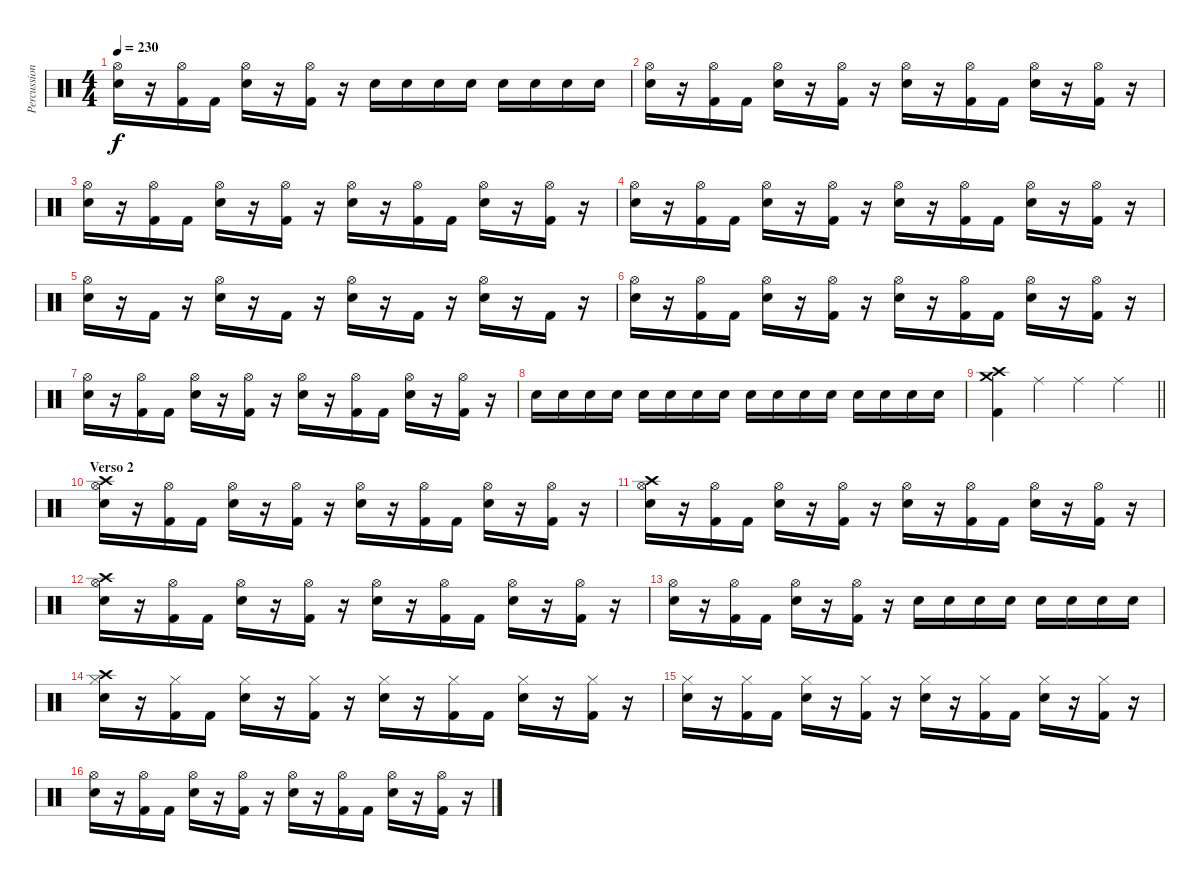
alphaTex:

\track ("Percussion" "Percussion") {instrument percussion}
\staff {score}
\articulation defaults
\ts (4 4)
\tempo 230
\clef neutral
\ks c
("Hi-Hat (open)" "Electric Snare (hit)").16{dy f} r.16 ("Hi-Hat (open)" "Kick (hit) 2").16 "Kick (hit) 2".16 ("Hi-Hat (open)" "Electric Snare (hit)").16 r.16 ("Hi-Hat (open)" "Kick (hit) 2").16 r.16 "Electric Snare (hit)".16 "Electric Snare (hit)".16 "Electric Snare (hit)".16 "Electric Snare (hit)".16 "Electric Snare (hit)".16 "Electric Snare (hit)".16 "Electric Snare (hit)".16 "Electric Snare (hit)".16 |
("Hi-Hat (open)" "Electric Snare (hit)").16 r.16 ("Hi-Hat (open)" "Kick (hit) 2").16 "Kick (hit) 2".16 ("Hi-Hat (open)" "Electric Snare (hit)").16 r.16 ("Hi-Hat (open)" "Kick (hit) 2").16 r.16 ("Hi-Hat (open)" "Electric Snare (hit)").16 r.16 ("Hi-Hat (open)" "Kick (hit) 2").16 "Kick (hit) 2".16 ("Hi-Hat (open)" "Electric Snare (hit)").16 r.16 ("Hi-Hat (open)" "Kick (hit) 2").16 r.16 |
("Hi-Hat (open)" "Electric Snare (hit)").16 r.16 ("Hi-Hat (open)" "Kick (hit) 2").16 "Kick (hit) 2".16 ("Hi-Hat (open)" "Electric Snare (hit)").16 r.16 ("Hi-Hat (open)" "Kick (hit) 2").16 r.16 ("Hi-Hat (open)" "Electric Snare (hit)").16 r.16 ("Hi-Hat (open)" "Kick (hit) 2").16 "Kick (hit) 2".16 ("Hi-Hat (open)" "Electric Snare (hit)").16 r.16 ("Hi-Hat (open)" "Kick (hit) 2").16 r.16 |
("Hi-Hat (open)" "Electric Snare (hit)").16 r.16 ("Hi-Hat (open)" "Kick (hit) 2").16 "Kick (hit) 2".16 ("Hi-Hat (open)" "Electric Snare (hit)").16 r.16 ("Hi-Hat (open)" "Kick (hit) 2").16 r.16 ("Hi-Hat (open)" "Electric Snare (hit)").16 r.16 ("Hi-Hat (open)" "Kick (hit) 2").16 "Kick (hit) 2".16 ("Hi-Hat (open)" "Electric Snare (hit)").16 r.16 ("Hi-Hat (open)" "Kick (hit) 2").16 r.16 |
("Hi-Hat (open)" "Electric Snare (hit)").16 r.16 "Kick (hit) 2".16 r.16 ("Hi-Hat (open)" "Electric Snare (hit)").16 r.16 "Kick (hit) 2".16 r.16 ("Hi-Hat (open)" "Electric Snare (hit)").16 r.16 "Kick (hit) 2".16 r.16 ("Hi-Hat (open)" "Electric Snare (hit)").16 r.16 "Kick (hit) 2".16 r.16 |
("Hi-Hat (open)" "Electric Snare (hit)").16 r.16 ("Hi-Hat (open)" "Kick (hit) 2").16 "Kick (hit) 2".16 ("Hi-Hat (open)" "Electric Snare (hit)").16 r.16 ("Hi-Hat (open)" "Kick (hit) 2").16 r.16 ("Hi-Hat (open)" "Electric Snare (hit)").16 r.16 ("Hi-Hat (open)" "Kick (hit) 2").16 "Kick (hit) 2".16 ("Hi-Hat (open)" "Electric Snare (hit)").16 r.16 ("Hi-Hat (open)" "Kick (hit) 2").16 r.16 |
("Hi-Hat (open)" "Electric Snare (hit)").16 r.16 ("Hi-Hat (open)" "Kick (hit) 2").16 "Kick (hit) 2".16 ("Hi-Hat (open)" "Electric Snare (hit)").16 r.16 ("Hi-Hat (open)" "Kick (hit) 2").16 r.16 ("Hi-Hat (open)" "Electric Snare (hit)").16 r.16 ("Hi-Hat (open)" "Kick (hit) 2").16 "Kick (hit) 2".16 ("Hi-Hat (open)" "Electric Snare (hit)").16 r.16 ("Hi-Hat (open)" "Kick (hit) 2").16 r.16 |
"Electric Snare (hit)".16 "Electric Snare (hit)".16 "Electric Snare (hit)".16 "Electric Snare (hit)".16 "Electric Snare (hit)".16 "Electric Snare (hit)".16 "Electric Snare (hit)".16 "Electric Snare (hit)".16 "Electric Snare (hit)".16 "Electric Snare (hit)".16 "Electric Snare (hit)".16 "Electric Snare (hit)".16 "Electric Snare (hit)".16 "Electric Snare (hit)".16 "Electric Snare (hit)".16 "Electric Snare (hit)".16 |
\barLineRight lightlight
("Crash high (hit)" "Crash medium (hit)" "Kick (hit) 2").4 "Ride (middle)".4 "Ride (middle)".4 "Ride (middle)".4 |
\section ("" "Verso 2")
("Crash high (hit)" "Hi-Hat (open)" "Electric Snare (hit)").16 r.16 ("Hi-Hat (open)" "Kick (hit) 2").16 "Kick (hit) 2".16 ("Hi-Hat (open)" "Electric Snare (hit)").16 r.16 ("Hi-Hat (open)" "Kick (hit) 2").16 r.16 ("Hi-Hat (open)" "Electric Snare (hit)").16 r.16 ("Hi-Hat (open)" "Kick (hit) 2").16 "Kick (hit) 2".16 ("Hi-Hat (open)" "Electric Snare (hit)").16 r.16 ("Hi-Hat (open)" "Kick (hit) 2").16 r.16 |
("Crash high (hit)" "Hi-Hat (open)" "Electric Snare (hit)").16 r.16 ("Hi-Hat (open)" "Kick (hit) 2").16 "Kick (hit) 2".16 ("Hi-Hat (open)" "Electric Snare (hit)").16 r.16 ("Hi-Hat (open)" "Kick (hit) 2").16 r.16 ("Hi-Hat (open)" "Electric Snare (hit)").16 r.16 ("Hi-Hat (open)" "Kick (hit) 2").16 "Kick (hit) 2".16 ("Hi-Hat (open)" "Electric Snare (hit)").16 r.16 ("Hi-Hat (open)" "Kick (hit) 2").16 r.16 |
("Crash high (hit)" "Hi-Hat (open)" "Electric Snare (hit)").16 r.16 ("Hi-Hat (open)" "Kick (hit) 2").16 "Kick (hit) 2".16 ("Hi-Hat (open)" "Electric Snare (hit)").16 r.16 ("Hi-Hat (open)" "Kick (hit) 2").16 r.16 ("Hi-Hat (open)" "Electric Snare (hit)").16 r.16 ("Hi-Hat (open)" "Kick (hit) 2").16 "Kick (hit) 2".16 ("Hi-Hat (open)" "Electric Snare (hit)").16 r.16 ("Hi-Hat (open)" "Kick (hit) 2").16 r.16 |
("Hi-Hat (open)" "Electric Snare (hit)").16 r.16 ("Hi-Hat (open)" "Kick (hit) 2").16 "Kick (hit) 2".16 ("Hi-Hat (open)" "Electric Snare (hit)").16 r.16 ("Hi-Hat (open)" "Kick (hit) 2").16 r.16 "Electric Snare (hit)".16 "Electric Snare (hit)".16 "Electric Snare (hit)".16 "Electric Snare (hit)".16 "Electric Snare (hit)".16 "Electric Snare (hit)".16 "Electric Snare (hit)".16 "Electric Snare (hit)".16 |
("Crash high (hit)" "Hi-Hat (closed)" "Electric Snare (hit)").16 r.16 ("Hi-Hat (closed)" "Kick (hit) 2").16 "Kick (hit) 2".16 ("Hi-Hat (closed)" "Electric Snare (hit)").16 r.16 ("Hi-Hat (closed)" "Kick (hit) 2").16 r.16 ("Hi-Hat (closed)" "Electric Snare (hit)").16 r.16 ("Hi-Hat (closed)" "Kick (hit) 2").16 "Kick (hit) 2".16 ("Hi-Hat (closed)" "Electric Snare (hit)").16 r.16 ("Hi-Hat (closed)" "Kick (hit) 2").16 r.16 |
("Hi-Hat (closed)" "Electric Snare (hit)").16 r.16 ("Hi-Hat (closed)" "Kick (hit) 2").16 "Kick (hit) 2".16 ("Hi-Hat (closed)" "Electric Snare (hit)").16 r.16 ("Hi-Hat (closed)" "Kick (hit) 2").16 r.16 ("Hi-Hat (closed)" "Electric Snare (hit)").16 r.16 ("Hi-Hat (closed)" "Kick (hit) 2").16 "Kick (hit) 2".16 ("Hi-Hat (closed)" "Electric Snare (hit)").16 r.16 ("Hi-Hat (closed)" "Kick (hit) 2").16 r.16 |
("Hi-Hat (open)" "Electric Snare (hit)").16 r.16 ("Hi-Hat (open)" "Kick (hit) 2").16 "Kick (hit) 2".16 ("Hi-Hat (open)" "Electric Snare (hit)").16 r.16 ("Hi-Hat (open)" "Kick (hit) 2").16 r.16 ("Hi-Hat (open)" "Electric Snare (hit)").16 r.16 ("Hi-Hat (open)" "Kick (hit) 2").16 "Kick (hit) 2".16 ("Hi-Hat (open)" "Electric Snare (hit)").16 r.16 ("Hi-Hat (open)" "Kick (hit) 2").16 r.16
